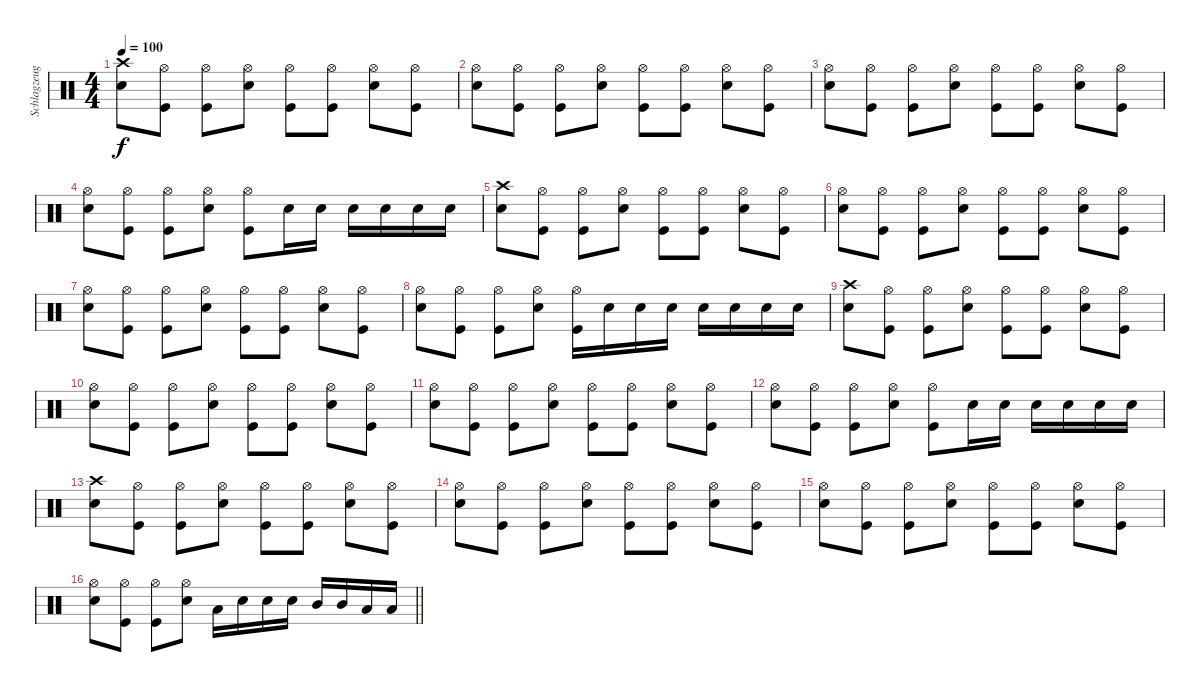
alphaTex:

\track ("Schlagzeug" "Schlagzeug") {instrument percussion}
\staff {score}
\articulation defaults
\ts (4 4)
\tempo 100
\clef neutral
\ks c
("Crash high (hit)" "Snare (hit) 2").8{dy f} ("Hi-Hat (open)" "Kick (hit)").8 ("Hi-Hat (open)" "Kick (hit)").8 ("Hi-Hat (open)" "Snare (hit) 2").8 ("Hi-Hat (open)" "Kick (hit)").8 ("Hi-Hat (open)" "Kick (hit)").8 ("Hi-Hat (open)" "Snare (hit) 2").8 ("Hi-Hat (open)" "Kick (hit)").8 |
("Hi-Hat (open)" "Snare (hit) 2").8 ("Hi-Hat (open)" "Kick (hit)").8 ("Hi-Hat (open)" "Kick (hit)").8 ("Hi-Hat (open)" "Snare (hit) 2").8 ("Hi-Hat (open)" "Kick (hit)").8 ("Hi-Hat (open)" "Kick (hit)").8 ("Hi-Hat (open)" "Snare (hit) 2").8 ("Hi-Hat (open)" "Kick (hit)").8 |
("Hi-Hat (open)" "Snare (hit) 2").8 ("Hi-Hat (open)" "Kick (hit)").8 ("Hi-Hat (open)" "Kick (hit)").8 ("Hi-Hat (open)" "Snare (hit) 2").8 ("Hi-Hat (open)" "Kick (hit)").8 ("Hi-Hat (open)" "Kick (hit)").8 ("Hi-Hat (open)" "Snare (hit) 2").8 ("Hi-Hat (open)" "Kick (hit)").8 |
("Hi-Hat (open)" "Snare (hit) 2").8 ("Hi-Hat (open)" "Kick (hit)").8 ("Hi-Hat (open)" "Kick (hit)").8 ("Hi-Hat (open)" "Snare (hit) 2").8 ("Hi-Hat (open)" "Kick (hit)").8 "Snare (hit) 2".16 "Snare (hit) 2".16 "Snare (hit) 2".16 "Snare (hit) 2".16 "Snare (hit) 2".16 "Snare (hit) 2".16 |
("Crash high (hit)" "Snare (hit) 2").8 ("Hi-Hat (open)" "Kick (hit)").8 ("Hi-Hat (open)" "Kick (hit)").8 ("Hi-Hat (open)" "Snare (hit) 2").8 ("Hi-Hat (open)" "Kick (hit)").8 ("Hi-Hat (open)" "Kick (hit)").8 ("Hi-Hat (open)" "Snare (hit) 2").8 ("Hi-Hat (open)" "Kick (hit)").8 |
("Hi-Hat (open)" "Snare (hit) 2").8 ("Hi-Hat (open)" "Kick (hit)").8 ("Hi-Hat (open)" "Kick (hit)").8 ("Hi-Hat (open)" "Snare (hit) 2").8 ("Hi-Hat (open)" "Kick (hit)").8 ("Hi-Hat (open)" "Kick (hit)").8 ("Hi-Hat (open)" "Snare (hit) 2").8 ("Hi-Hat (open)" "Kick (hit)").8 |
("Hi-Hat (open)" "Snare (hit) 2").8 ("Hi-Hat (open)" "Kick (hit)").8 ("Hi-Hat (open)" "Kick (hit)").8 ("Hi-Hat (open)" "Snare (hit) 2").8 ("Hi-Hat (open)" "Kick (hit)").8 ("Hi-Hat (open)" "Kick (hit)").8 ("Hi-Hat (open)" "Snare (hit) 2").8 ("Hi-Hat (open)" "Kick (hit)").8 |
("Hi-Hat (open)" "Snare (hit) 2").8 ("Hi-Hat (open)" "Kick (hit)").8 ("Hi-Hat (open)" "Kick (hit)").8 ("Hi-Hat (open)" "Snare (hit) 2").8 ("Hi-Hat (open)" "Kick (hit)").16 "Snare (hit) 2".16 "Snare (hit) 2".16 "Snare (hit) 2".16 "Snare (hit) 2".16 "Snare (hit) 2".16 "Snare (hit) 2".16 "Snare (hit) 2".16 |
("Crash high (hit)" "Snare (hit) 2").8 ("Hi-Hat (open)" "Kick (hit)").8 ("Hi-Hat (open)" "Kick (hit)").8 ("Hi-Hat (open)" "Snare (hit) 2").8 ("Hi-Hat (open)" "Kick (hit)").8 ("Hi-Hat (open)" "Kick (hit)").8 ("Hi-Hat (open)" "Snare (hit) 2").8 ("Hi-Hat (open)" "Kick (hit)").8 |
("Hi-Hat (open)" "Snare (hit) 2").8 ("Hi-Hat (open)" "Kick (hit)").8 ("Hi-Hat (open)" "Kick (hit)").8 ("Hi-Hat (open)" "Snare (hit) 2").8 ("Hi-Hat (open)" "Kick (hit)").8 ("Hi-Hat (open)" "Kick (hit)").8 ("Hi-Hat (open)" "Snare (hit) 2").8 ("Hi-Hat (open)" "Kick (hit)").8 |
("Hi-Hat (open)" "Snare (hit) 2").8 ("Hi-Hat (open)" "Kick (hit)").8 ("Hi-Hat (open)" "Kick (hit)").8 ("Hi-Hat (open)" "Snare (hit) 2").8 ("Hi-Hat (open)" "Kick (hit)").8 ("Hi-Hat (open)" "Kick (hit)").8 ("Hi-Hat (open)" "Snare (hit) 2").8 ("Hi-Hat (open)" "Kick (hit)").8 |
("Hi-Hat (open)" "Snare (hit) 2").8 ("Hi-Hat (open)" "Kick (hit)").8 ("Hi-Hat (open)" "Kick (hit)").8 ("Hi-Hat (open)" "Snare (hit) 2").8 ("Hi-Hat (open)" "Kick (hit)").8 "Snare (hit) 2".16 "Snare (hit) 2".16 "Snare (hit) 2".16 "Snare (hit) 2".16 "Snare (hit) 2".16 "Snare (hit) 2".16 |
("Crash high (hit)" "Snare (hit) 2").8 ("Hi-Hat (open)" "Kick (hit)").8 ("Hi-Hat (open)" "Kick (hit)").8 ("Hi-Hat (open)" "Snare (hit) 2").8 ("Hi-Hat (open)" "Kick (hit)").8 ("Hi-Hat (open)" "Kick (hit)").8 ("Hi-Hat (open)" "Snare (hit) 2").8 ("Hi-Hat (open)" "Kick (hit)").8 |
("Hi-Hat (open)" "Snare (hit) 2").8 ("Hi-Hat (open)" "Kick (hit)").8 ("Hi-Hat (open)" "Kick (hit)").8 ("Hi-Hat (open)" "Snare (hit) 2").8 ("Hi-Hat (open)" "Kick (hit)").8 ("Hi-Hat (open)" "Kick (hit)").8 ("Hi-Hat (open)" "Snare (hit) 2").8 ("Hi-Hat (open)" "Kick (hit)").8 |
("Hi-Hat (open)" "Snare (hit) 2").8 ("Hi-Hat (open)" "Kick (hit)").8 ("Hi-Hat (open)" "Kick (hit)").8 ("Hi-Hat (open)" "Snare (hit) 2").8 ("Hi-Hat (open)" "Kick (hit)").8 ("Hi-Hat (open)" "Kick (hit)").8 ("Hi-Hat (open)" "Snare (hit) 2").8 ("Hi-Hat (open)" "Kick (hit)").8 |
\barLineRight lightlight
("Hi-Hat (open)" "Snare (hit) 2").8 ("Hi-Hat (open)" "Kick (hit)").8 ("Hi-Hat (open)" "Kick (hit)").8 ("Hi-Hat (open)" "Snare (hit) 2").8 "Low Tom (hit)".16 "Snare (hit) 2".16 "Snare (hit) 2".16 "Snare (hit) 2".16 "Mid Tom (hit)".16 "Mid Tom (hit)".16 "Low Tom (hit)".16 "Low Tom (hit)".16
